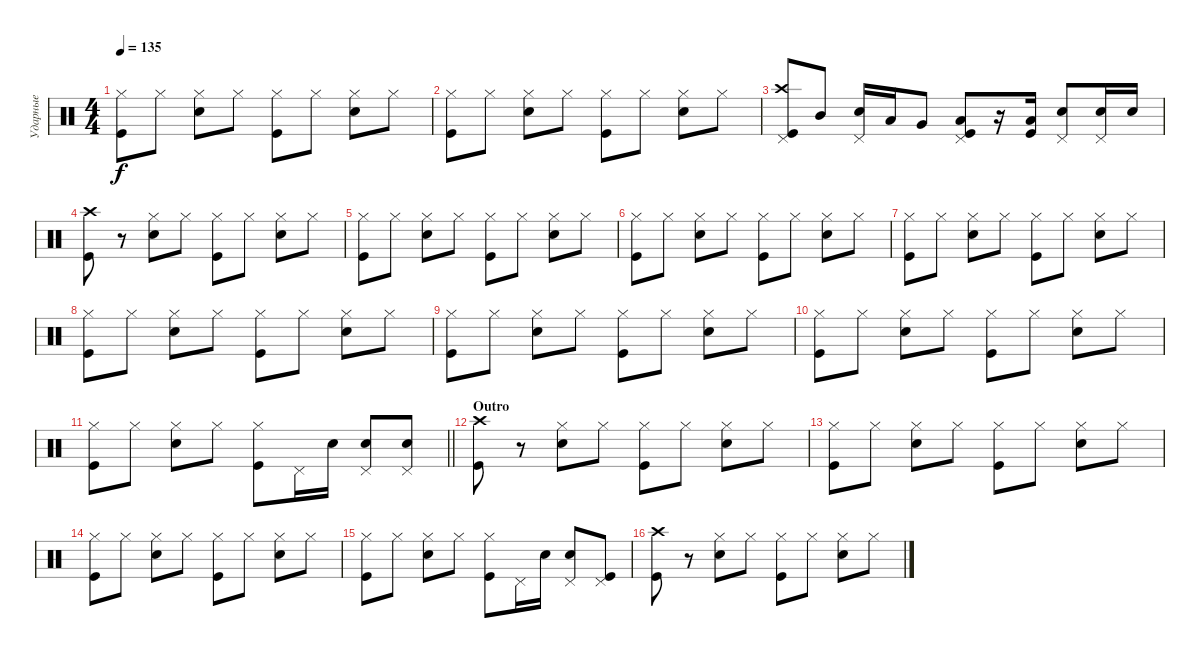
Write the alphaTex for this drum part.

\track ("Ударные" "Ударные") {instrument percussion}
\staff {score}
\articulation defaults
\ts (4 4)
\tempo 135
\clef neutral
\ks c
("Hi-Hat (closed)" "Kick (hit)").8{dy f} "Hi-Hat (closed)".8 ("Hi-Hat (closed)" "Snare (hit) 2").8 "Hi-Hat (closed)".8 ("Hi-Hat (closed)" "Kick (hit)").8 "Hi-Hat (closed)".8 ("Hi-Hat (closed)" "Snare (hit) 2").8 "Hi-Hat (closed)".8 |
("Hi-Hat (closed)" "Kick (hit)").8 "Hi-Hat (closed)".8 ("Hi-Hat (closed)" "Snare (hit) 2").8 "Hi-Hat (closed)".8 ("Hi-Hat (closed)" "Kick (hit)").8 "Hi-Hat (closed)".8 ("Hi-Hat (closed)" "Snare (hit) 2").8 "Hi-Hat (closed)".8 |
("Kick (hit)" "Crash high (hit)" "Pedal Hi-Hat (hit)").8 "Mid Tom (hit)".8 ("Pedal Hi-Hat (hit)" "Snare (hit) 2").16 "Low Tom (hit)".16 "Very Low Tom (hit)".8 ("Low Floor Tom (hit)" "Kick (hit)" "Pedal Hi-Hat (hit)").8 r.16 ("Low Floor Tom (hit)" "Kick (hit)").16 ("Snare (hit) 2" "Pedal Hi-Hat (hit)").8 ("Snare (hit) 2" "Pedal Hi-Hat (hit)").16 "Snare (hit) 2".16 |
("Crash high (hit)" "Kick (hit)").8 r.8 ("Hi-Hat (closed)" "Snare (hit) 2").8 "Hi-Hat (closed)".8 ("Hi-Hat (closed)" "Kick (hit)").8 "Hi-Hat (closed)".8 ("Hi-Hat (closed)" "Snare (hit) 2").8 "Hi-Hat (closed)".8 |
("Hi-Hat (closed)" "Kick (hit)").8 "Hi-Hat (closed)".8 ("Hi-Hat (closed)" "Snare (hit) 2").8 "Hi-Hat (closed)".8 ("Hi-Hat (closed)" "Kick (hit)").8 "Hi-Hat (closed)".8 ("Hi-Hat (closed)" "Snare (hit) 2").8 "Hi-Hat (closed)".8 |
("Hi-Hat (closed)" "Kick (hit)").8 "Hi-Hat (closed)".8 ("Hi-Hat (closed)" "Snare (hit) 2").8 "Hi-Hat (closed)".8 ("Hi-Hat (closed)" "Kick (hit)").8 "Hi-Hat (closed)".8 ("Hi-Hat (closed)" "Snare (hit) 2").8 "Hi-Hat (closed)".8 |
("Hi-Hat (closed)" "Kick (hit)").8 "Hi-Hat (closed)".8 ("Hi-Hat (closed)" "Snare (hit) 2").8 "Hi-Hat (closed)".8 ("Hi-Hat (closed)" "Kick (hit)").8 "Hi-Hat (closed)".8 ("Hi-Hat (closed)" "Snare (hit) 2").8 "Hi-Hat (closed)".8 |
("Hi-Hat (closed)" "Kick (hit)").8 "Hi-Hat (closed)".8 ("Hi-Hat (closed)" "Snare (hit) 2").8 "Hi-Hat (closed)".8 ("Hi-Hat (closed)" "Kick (hit)").8 "Hi-Hat (closed)".8 ("Hi-Hat (closed)" "Snare (hit) 2").8 "Hi-Hat (closed)".8 |
("Hi-Hat (closed)" "Kick (hit)").8 "Hi-Hat (closed)".8 ("Hi-Hat (closed)" "Snare (hit) 2").8 "Hi-Hat (closed)".8 ("Hi-Hat (closed)" "Kick (hit)").8 "Hi-Hat (closed)".8 ("Hi-Hat (closed)" "Snare (hit) 2").8 "Hi-Hat (closed)".8 |
("Hi-Hat (closed)" "Kick (hit)").8 "Hi-Hat (closed)".8 ("Hi-Hat (closed)" "Snare (hit) 2").8 "Hi-Hat (closed)".8 ("Hi-Hat (closed)" "Kick (hit)").8 "Hi-Hat (closed)".8 ("Hi-Hat (closed)" "Snare (hit) 2").8 "Hi-Hat (closed)".8 |
\barLineRight lightlight
("Hi-Hat (closed)" "Kick (hit)").8 "Hi-Hat (closed)".8 ("Hi-Hat (closed)" "Snare (hit) 2").8 "Hi-Hat (closed)".8 ("Hi-Hat (closed)" "Kick (hit)").8 "Pedal Hi-Hat (hit)".16 "Snare (hit) 2".16 ("Pedal Hi-Hat (hit)" "Snare (hit) 2").8 ("Pedal Hi-Hat (hit)" "Snare (hit) 2").8 |
\section ("" "Outro")
("Crash high (hit)" "Kick (hit)").8 r.8 ("Hi-Hat (closed)" "Snare (hit) 2").8 "Hi-Hat (closed)".8 ("Hi-Hat (closed)" "Kick (hit)").8 "Hi-Hat (closed)".8 ("Hi-Hat (closed)" "Snare (hit) 2").8 "Hi-Hat (closed)".8 |
("Hi-Hat (closed)" "Kick (hit)").8 "Hi-Hat (closed)".8 ("Hi-Hat (closed)" "Snare (hit) 2").8 "Hi-Hat (closed)".8 ("Hi-Hat (closed)" "Kick (hit)").8 "Hi-Hat (closed)".8 ("Hi-Hat (closed)" "Snare (hit) 2").8 "Hi-Hat (closed)".8 |
("Hi-Hat (closed)" "Kick (hit)").8 "Hi-Hat (closed)".8 ("Hi-Hat (closed)" "Snare (hit) 2").8 "Hi-Hat (closed)".8 ("Hi-Hat (closed)" "Kick (hit)").8 "Hi-Hat (closed)".8 ("Hi-Hat (closed)" "Snare (hit) 2").8 "Hi-Hat (closed)".8 |
("Hi-Hat (closed)" "Kick (hit)").8 "Hi-Hat (closed)".8 ("Hi-Hat (closed)" "Snare (hit) 2").8 "Hi-Hat (closed)".8 ("Hi-Hat (closed)" "Kick (hit)").8 "Pedal Hi-Hat (hit)".16 "Snare (hit) 2".16 ("Pedal Hi-Hat (hit)" "Snare (hit) 2").8 ("Pedal Hi-Hat (hit)" "Kick (hit)").8 |
("Crash high (hit)" "Kick (hit)").8 r.8 ("Hi-Hat (closed)" "Snare (hit) 2").8 "Hi-Hat (closed)".8 ("Hi-Hat (closed)" "Kick (hit)").8 "Hi-Hat (closed)".8 ("Hi-Hat (closed)" "Snare (hit) 2").8 "Hi-Hat (closed)".8
